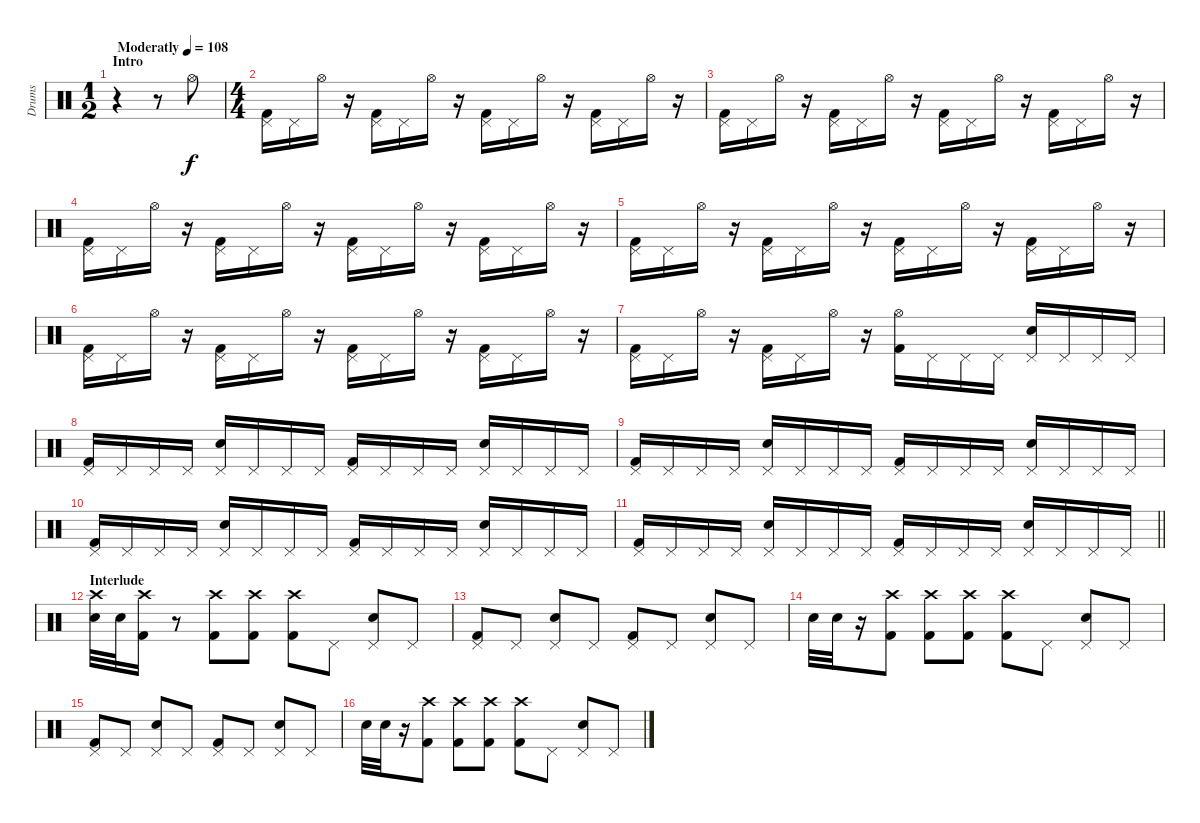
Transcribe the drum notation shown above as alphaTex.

\track ("Drums" "Drums") {instrument percussion}
\staff {score}
\articulation defaults
\ts (1 2)
\section ("" "Intro")
\tempo (108 "Moderatly")
\clef neutral
\ks c
r.4{dy f} r.8 "Hi-Hat (open)".8 |
\ts (4 4)
("Kick (hit) 2" "Pedal Hi-Hat (hit)").16 "Pedal Hi-Hat (hit)".16 "Hi-Hat (open)".16 r.16 ("Kick (hit) 2" "Pedal Hi-Hat (hit)").16 "Pedal Hi-Hat (hit)".16 "Hi-Hat (open)".16 r.16 ("Kick (hit) 2" "Pedal Hi-Hat (hit)").16 "Pedal Hi-Hat (hit)".16 "Hi-Hat (open)".16 r.16 ("Kick (hit) 2" "Pedal Hi-Hat (hit)").16 "Pedal Hi-Hat (hit)".16 "Hi-Hat (open)".16 r.16 |
("Kick (hit) 2" "Pedal Hi-Hat (hit)").16 "Pedal Hi-Hat (hit)".16 "Hi-Hat (open)".16 r.16 ("Kick (hit) 2" "Pedal Hi-Hat (hit)").16 "Pedal Hi-Hat (hit)".16 "Hi-Hat (open)".16 r.16 ("Kick (hit) 2" "Pedal Hi-Hat (hit)").16 "Pedal Hi-Hat (hit)".16 "Hi-Hat (open)".16 r.16 ("Kick (hit) 2" "Pedal Hi-Hat (hit)").16 "Pedal Hi-Hat (hit)".16 "Hi-Hat (open)".16 r.16 |
("Kick (hit) 2" "Pedal Hi-Hat (hit)").16 "Pedal Hi-Hat (hit)".16 "Hi-Hat (open)".16 r.16 ("Kick (hit) 2" "Pedal Hi-Hat (hit)").16 "Pedal Hi-Hat (hit)".16 "Hi-Hat (open)".16 r.16 ("Kick (hit) 2" "Pedal Hi-Hat (hit)").16 "Pedal Hi-Hat (hit)".16 "Hi-Hat (open)".16 r.16 ("Kick (hit) 2" "Pedal Hi-Hat (hit)").16 "Pedal Hi-Hat (hit)".16 "Hi-Hat (open)".16 r.16 |
("Kick (hit) 2" "Pedal Hi-Hat (hit)").16 "Pedal Hi-Hat (hit)".16 "Hi-Hat (open)".16 r.16 ("Kick (hit) 2" "Pedal Hi-Hat (hit)").16 "Pedal Hi-Hat (hit)".16 "Hi-Hat (open)".16 r.16 ("Kick (hit) 2" "Pedal Hi-Hat (hit)").16 "Pedal Hi-Hat (hit)".16 "Hi-Hat (open)".16 r.16 ("Kick (hit) 2" "Pedal Hi-Hat (hit)").16 "Pedal Hi-Hat (hit)".16 "Hi-Hat (open)".16 r.16 |
("Kick (hit) 2" "Pedal Hi-Hat (hit)").16 "Pedal Hi-Hat (hit)".16 "Hi-Hat (open)".16 r.16 ("Kick (hit) 2" "Pedal Hi-Hat (hit)").16 "Pedal Hi-Hat (hit)".16 "Hi-Hat (open)".16 r.16 ("Kick (hit) 2" "Pedal Hi-Hat (hit)").16 "Pedal Hi-Hat (hit)".16 "Hi-Hat (open)".16 r.16 ("Kick (hit) 2" "Pedal Hi-Hat (hit)").16 "Pedal Hi-Hat (hit)".16 "Hi-Hat (open)".16 r.16 |
("Kick (hit) 2" "Pedal Hi-Hat (hit)").16 "Pedal Hi-Hat (hit)".16 "Hi-Hat (open)".16 r.16 ("Kick (hit) 2" "Pedal Hi-Hat (hit)").16 "Pedal Hi-Hat (hit)".16 "Hi-Hat (open)".16 r.16 ("Kick (hit) 2" "Hi-Hat (open)").16 "Pedal Hi-Hat (hit)".16 "Pedal Hi-Hat (hit)".16 "Pedal Hi-Hat (hit)".16 ("Electric Snare (hit)" "Pedal Hi-Hat (hit)").16 "Pedal Hi-Hat (hit)".16 "Pedal Hi-Hat (hit)".16 "Pedal Hi-Hat (hit)".16 |
("Kick (hit) 2" "Pedal Hi-Hat (hit)").16 "Pedal Hi-Hat (hit)".16 "Pedal Hi-Hat (hit)".16 "Pedal Hi-Hat (hit)".16 ("Electric Snare (hit)" "Pedal Hi-Hat (hit)").16 "Pedal Hi-Hat (hit)".16 "Pedal Hi-Hat (hit)".16 "Pedal Hi-Hat (hit)".16 ("Kick (hit) 2" "Pedal Hi-Hat (hit)").16 "Pedal Hi-Hat (hit)".16 "Pedal Hi-Hat (hit)".16 "Pedal Hi-Hat (hit)".16 ("Electric Snare (hit)" "Pedal Hi-Hat (hit)").16 "Pedal Hi-Hat (hit)".16 "Pedal Hi-Hat (hit)".16 "Pedal Hi-Hat (hit)".16 |
("Kick (hit) 2" "Pedal Hi-Hat (hit)").16 "Pedal Hi-Hat (hit)".16 "Pedal Hi-Hat (hit)".16 "Pedal Hi-Hat (hit)".16 ("Electric Snare (hit)" "Pedal Hi-Hat (hit)").16 "Pedal Hi-Hat (hit)".16 "Pedal Hi-Hat (hit)".16 "Pedal Hi-Hat (hit)".16 ("Kick (hit) 2" "Pedal Hi-Hat (hit)").16 "Pedal Hi-Hat (hit)".16 "Pedal Hi-Hat (hit)".16 "Pedal Hi-Hat (hit)".16 ("Electric Snare (hit)" "Pedal Hi-Hat (hit)").16 "Pedal Hi-Hat (hit)".16 "Pedal Hi-Hat (hit)".16 "Pedal Hi-Hat (hit)".16 |
("Kick (hit) 2" "Pedal Hi-Hat (hit)").16 "Pedal Hi-Hat (hit)".16 "Pedal Hi-Hat (hit)".16 "Pedal Hi-Hat (hit)".16 ("Electric Snare (hit)" "Pedal Hi-Hat (hit)").16 "Pedal Hi-Hat (hit)".16 "Pedal Hi-Hat (hit)".16 "Pedal Hi-Hat (hit)".16 ("Kick (hit) 2" "Pedal Hi-Hat (hit)").16 "Pedal Hi-Hat (hit)".16 "Pedal Hi-Hat (hit)".16 "Pedal Hi-Hat (hit)".16 ("Electric Snare (hit)" "Pedal Hi-Hat (hit)").16 "Pedal Hi-Hat (hit)".16 "Pedal Hi-Hat (hit)".16 "Pedal Hi-Hat (hit)".16 |
\barLineRight lightlight
("Kick (hit) 2" "Pedal Hi-Hat (hit)").16 "Pedal Hi-Hat (hit)".16 "Pedal Hi-Hat (hit)".16 "Pedal Hi-Hat (hit)".16 ("Electric Snare (hit)" "Pedal Hi-Hat (hit)").16 "Pedal Hi-Hat (hit)".16 "Pedal Hi-Hat (hit)".16 "Pedal Hi-Hat (hit)".16 ("Kick (hit) 2" "Pedal Hi-Hat (hit)").16 "Pedal Hi-Hat (hit)".16 "Pedal Hi-Hat (hit)".16 "Pedal Hi-Hat (hit)".16 ("Electric Snare (hit)" "Pedal Hi-Hat (hit)").16 "Pedal Hi-Hat (hit)".16 "Pedal Hi-Hat (hit)".16 "Pedal Hi-Hat (hit)".16 |
\section ("" "Interlude")
("Electric Snare (hit)" "Crash high (hit)").32 "Electric Snare (hit)".32 ("Kick (hit) 2" "Crash high (hit)").16 r.8 ("Crash high (hit)" "Kick (hit) 2").8 ("Crash high (hit)" "Kick (hit) 2").8 ("Crash high (hit)" "Kick (hit) 2").8 "Pedal Hi-Hat (hit)".8 ("Pedal Hi-Hat (hit)" "Electric Snare (hit)").8 "Pedal Hi-Hat (hit)".8 |
("Pedal Hi-Hat (hit)" "Kick (hit) 2").8 "Pedal Hi-Hat (hit)".8 ("Pedal Hi-Hat (hit)" "Electric Snare (hit)").8 "Pedal Hi-Hat (hit)".8 ("Pedal Hi-Hat (hit)" "Kick (hit) 2").8 "Pedal Hi-Hat (hit)".8 ("Pedal Hi-Hat (hit)" "Electric Snare (hit)").8 "Pedal Hi-Hat (hit)".8 |
"Electric Snare (hit)".32 "Electric Snare (hit)".32 r.16 ("Crash high (hit)" "Kick (hit) 2").8 ("Crash high (hit)" "Kick (hit) 2").8 ("Crash high (hit)" "Kick (hit) 2").8 ("Crash high (hit)" "Kick (hit) 2").8 "Pedal Hi-Hat (hit)".8 ("Pedal Hi-Hat (hit)" "Electric Snare (hit)").8 "Pedal Hi-Hat (hit)".8 |
("Pedal Hi-Hat (hit)" "Kick (hit) 2").8 "Pedal Hi-Hat (hit)".8 ("Pedal Hi-Hat (hit)" "Electric Snare (hit)").8 "Pedal Hi-Hat (hit)".8 ("Pedal Hi-Hat (hit)" "Kick (hit) 2").8 "Pedal Hi-Hat (hit)".8 ("Pedal Hi-Hat (hit)" "Electric Snare (hit)").8 "Pedal Hi-Hat (hit)".8 |
"Electric Snare (hit)".32 "Electric Snare (hit)".32 r.16 ("Crash high (hit)" "Kick (hit) 2").8 ("Crash high (hit)" "Kick (hit) 2").8 ("Crash high (hit)" "Kick (hit) 2").8 ("Crash high (hit)" "Kick (hit) 2").8 "Pedal Hi-Hat (hit)".8 ("Pedal Hi-Hat (hit)" "Electric Snare (hit)").8 "Pedal Hi-Hat (hit)".8
